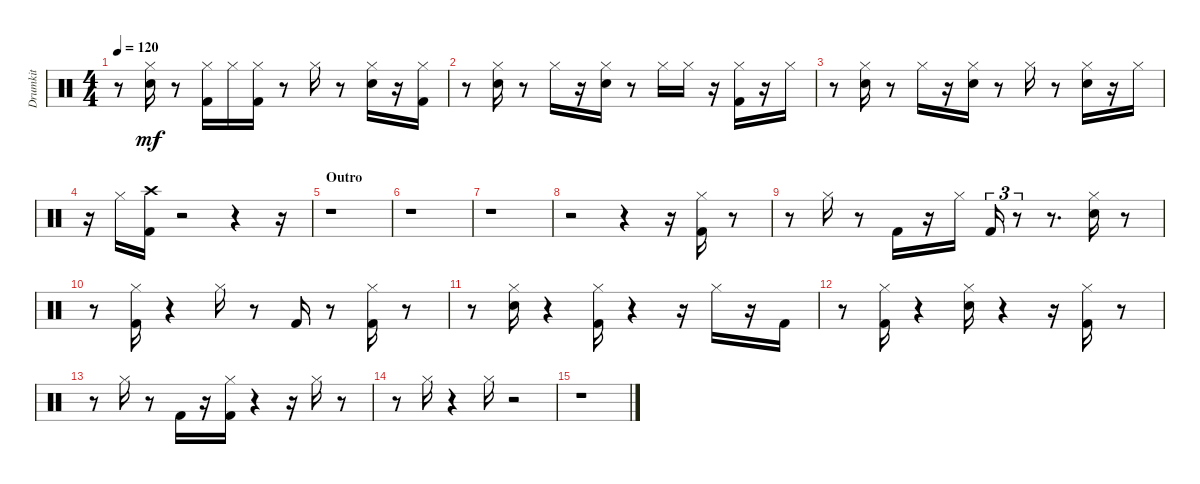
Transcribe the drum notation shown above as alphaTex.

\track ("Drumkit" "Drumkit") {instrument percussion}
\staff {score}
\articulation defaults
\ts (4 4)
\tempo 120
\clef neutral
\ks aminor
r.8{dy mf} ("Snare (hit) 2" "Hi-Hat (closed)").16 r.8 ("Kick (hit) 2" "Hi-Hat (closed)").16 "Hi-Hat (closed)".16 ("Kick (hit) 2" "Hi-Hat (closed)").16 r.8 "Hi-Hat (closed)".16 r.8 ("Snare (hit) 2" "Hi-Hat (closed)").16 r.16 ("Kick (hit) 2" "Hi-Hat (closed)").16 |
r.8 ("Snare (hit) 2" "Hi-Hat (closed)").16 r.8 "Hi-Hat (closed)".16 r.16 ("Snare (hit) 2" "Hi-Hat (closed)").16 r.8 "Hi-Hat (closed)".16 "Hi-Hat (closed)".16 r.16 ("Kick (hit) 2" "Hi-Hat (closed)").16 r.16 "Hi-Hat (closed)".16 |
r.8 ("Snare (hit) 2" "Hi-Hat (closed)").16 r.8 "Hi-Hat (closed)".16 r.16 ("Snare (hit) 2" "Hi-Hat (closed)").16 r.8 "Hi-Hat (closed)".16 r.8 ("Snare (hit) 2" "Hi-Hat (closed)").16 r.16 "Hi-Hat (closed)".16 |
r.16 "Hi-Hat (closed)".16 ("Kick (hit) 2" "Crash high (hit)").16 r.2 r.4 r.16 |
\section ("" "Outro")
r.1 |
r.1 |
r.1 |
r.2 r.4 r.16 ("Kick (hit) 2" "Hi-Hat (closed)").16 r.8 |
r.8 "Hi-Hat (closed)".16 r.8 "Kick (hit) 2".16 r.16 "Hi-Hat (closed)".16 "Kick (hit) 2".16{tu (3 2)} r.8{tu (3 2)} r.8{d} ("Snare (hit) 2" "Hi-Hat (closed)").16 r.8 |
r.8 ("Kick (hit) 2" "Hi-Hat (closed)").16 r.4 "Hi-Hat (closed)".16 r.8 "Kick (hit) 2".16 r.8 ("Kick (hit) 2" "Hi-Hat (closed)").16 r.8 |
r.8 ("Snare (hit) 2" "Hi-Hat (closed)").16 r.4 ("Kick (hit) 2" "Hi-Hat (closed)").16 r.4 r.16 "Hi-Hat (closed)".16 r.16 "Kick (hit) 2".16 |
r.8 ("Kick (hit) 2" "Hi-Hat (closed)").16 r.4 ("Snare (hit) 2" "Hi-Hat (closed)").16 r.4 r.16 ("Kick (hit) 2" "Hi-Hat (closed)").16 r.8 |
r.8 "Hi-Hat (closed)".16 r.8 "Kick (hit) 2".16 r.16 ("Kick (hit) 2" "Hi-Hat (closed)").16 r.4 r.16 "Hi-Hat (closed)".16 r.8 |
r.8 "Hi-Hat (closed)".16 r.4 "Hi-Hat (closed)".16 r.2 |
r.1
